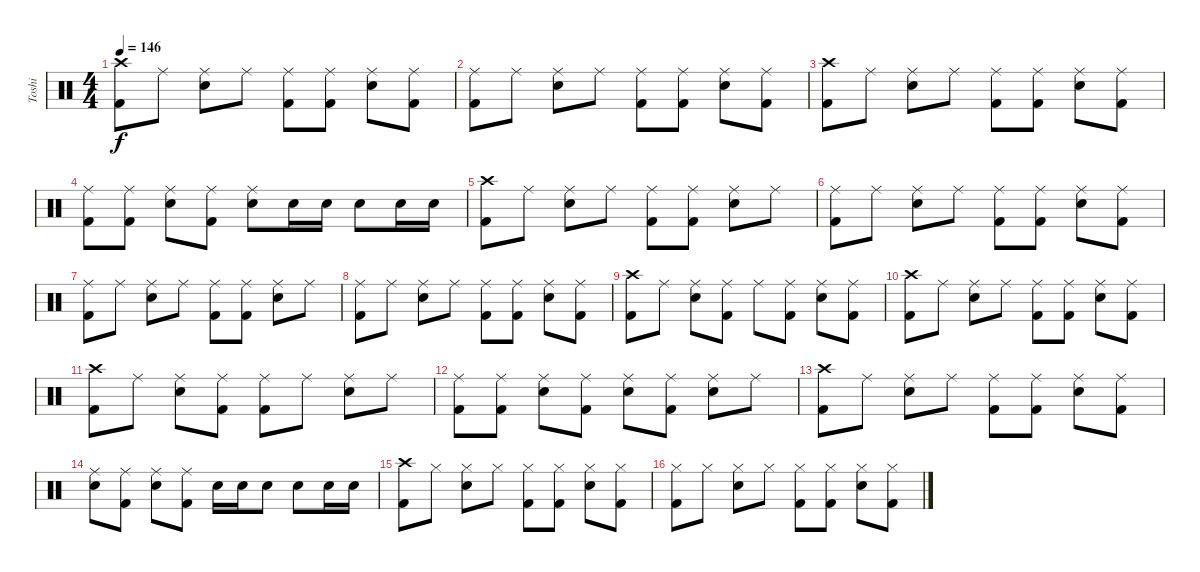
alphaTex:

\track ("Toshi" "Toshi") {instrument percussion}
\staff {score}
\articulation defaults
\ts (4 4)
\tempo 146
\clef neutral
\ks c
("Crash high (hit)" "Kick (hit) 2").8{dy f} "Ride (middle)".8 ("Ride (middle)" "Electric Snare (hit)").8 "Ride (middle)".8 ("Ride (middle)" "Kick (hit) 2").8 ("Ride (middle)" "Kick (hit) 2").8 ("Ride (middle)" "Electric Snare (hit)").8 ("Ride (middle)" "Kick (hit) 2").8 |
("Ride (middle)" "Kick (hit) 2").8 "Ride (middle)".8 ("Ride (middle)" "Electric Snare (hit)").8 "Ride (middle)".8 ("Ride (middle)" "Kick (hit) 2").8 ("Ride (middle)" "Kick (hit) 2").8 ("Ride (middle)" "Electric Snare (hit)").8 ("Ride (middle)" "Kick (hit) 2").8 |
("Crash high (hit)" "Kick (hit) 2").8 "Ride (middle)".8 ("Ride (middle)" "Electric Snare (hit)").8 "Ride (middle)".8 ("Ride (middle)" "Kick (hit) 2").8 ("Ride (middle)" "Kick (hit) 2").8 ("Ride (middle)" "Electric Snare (hit)").8 ("Ride (middle)" "Kick (hit) 2").8 |
("Ride (middle)" "Kick (hit) 2").8 ("Ride (middle)" "Kick (hit) 2").8 ("Ride (middle)" "Electric Snare (hit)").8 ("Ride (middle)" "Kick (hit) 2").8 ("Ride (middle)" "Electric Snare (hit)").8 "Electric Snare (hit)".16 "Electric Snare (hit)".16 "Electric Snare (hit)".8 "Electric Snare (hit)".16 "Electric Snare (hit)".16 |
("Crash high (hit)" "Kick (hit) 2").8 "Ride (middle)".8 ("Ride (middle)" "Electric Snare (hit)").8 "Ride (middle)".8 ("Ride (middle)" "Kick (hit) 2").8 ("Ride (middle)" "Kick (hit) 2").8 ("Ride (middle)" "Electric Snare (hit)").8 "Ride (middle)".8 |
("Ride (middle)" "Kick (hit) 2").8 "Ride (middle)".8 ("Ride (middle)" "Electric Snare (hit)").8 "Ride (middle)".8 ("Ride (middle)" "Kick (hit) 2").8 ("Ride (middle)" "Kick (hit) 2").8 ("Ride (middle)" "Electric Snare (hit)").8 ("Ride (middle)" "Kick (hit) 2").8 |
("Ride (middle)" "Kick (hit) 2").8 "Ride (middle)".8 ("Ride (middle)" "Electric Snare (hit)").8 "Ride (middle)".8 ("Ride (middle)" "Kick (hit) 2").8 ("Ride (middle)" "Kick (hit) 2").8 ("Ride (middle)" "Electric Snare (hit)").8 "Ride (middle)".8 |
("Ride (middle)" "Kick (hit) 2").8 "Ride (middle)".8 ("Ride (middle)" "Electric Snare (hit)").8 "Ride (middle)".8 ("Ride (middle)" "Kick (hit) 2").8 ("Ride (middle)" "Kick (hit) 2").8 ("Ride (middle)" "Electric Snare (hit)").8 ("Ride (middle)" "Kick (hit) 2").8 |
("Crash high (hit)" "Kick (hit) 2").8 "Ride (middle)".8 ("Ride (middle)" "Electric Snare (hit)").8 ("Ride (middle)" "Kick (hit) 2").8 "Ride (middle)".8 ("Ride (middle)" "Kick (hit) 2").8 ("Ride (middle)" "Electric Snare (hit)").8 ("Ride (middle)" "Kick (hit) 2").8 |
("Crash high (hit)" "Kick (hit) 2").8 "Ride (middle)".8 ("Ride (middle)" "Electric Snare (hit)").8 "Ride (middle)".8 ("Ride (middle)" "Kick (hit) 2").8 ("Ride (middle)" "Kick (hit) 2").8 ("Ride (middle)" "Electric Snare (hit)").8 ("Ride (middle)" "Kick (hit) 2").8 |
("Crash high (hit)" "Kick (hit) 2").8 "Ride (middle)".8 ("Ride (middle)" "Electric Snare (hit)").8 ("Ride (middle)" "Kick (hit) 2").8 ("Ride (middle)" "Kick (hit) 2").8 "Ride (middle)".8 ("Ride (middle)" "Electric Snare (hit)").8 "Ride (middle)".8 |
("Ride (middle)" "Kick (hit) 2").8 ("Ride (middle)" "Kick (hit) 2").8 ("Ride (middle)" "Electric Snare (hit)").8 ("Ride (middle)" "Kick (hit) 2").8 ("Ride (middle)" "Electric Snare (hit)").8 ("Ride (middle)" "Kick (hit) 2").8 ("Ride (middle)" "Electric Snare (hit)").8 "Ride (middle)".8 |
("Crash high (hit)" "Kick (hit) 2").8 "Ride (middle)".8 ("Ride (middle)" "Electric Snare (hit)").8 "Ride (middle)".8 ("Ride (middle)" "Kick (hit) 2").8 ("Ride (middle)" "Kick (hit) 2").8 ("Ride (middle)" "Electric Snare (hit)").8 ("Ride (middle)" "Kick (hit) 2").8 |
("Ride (middle)" "Electric Snare (hit)").8 ("Ride (middle)" "Kick (hit) 2").8 ("Ride (middle)" "Electric Snare (hit)").8 ("Ride (middle)" "Kick (hit) 2").8 "Electric Snare (hit)".16 "Electric Snare (hit)".16 "Electric Snare (hit)".8 "Electric Snare (hit)".8 "Electric Snare (hit)".16 "Electric Snare (hit)".16 |
("Crash high (hit)" "Kick (hit) 2").8 "Hi-Hat (closed)".8 ("Hi-Hat (closed)" "Electric Snare (hit)").8 "Hi-Hat (closed)".8 ("Hi-Hat (closed)" "Kick (hit) 2").8 ("Hi-Hat (closed)" "Kick (hit) 2").8 ("Hi-Hat (closed)" "Electric Snare (hit)").8 ("Hi-Hat (closed)" "Kick (hit) 2").8 |
("Hi-Hat (closed)" "Kick (hit) 2").8 "Hi-Hat (closed)".8 ("Hi-Hat (closed)" "Electric Snare (hit)").8 "Hi-Hat (closed)".8 ("Hi-Hat (closed)" "Kick (hit) 2").8 ("Hi-Hat (closed)" "Kick (hit) 2").8 ("Hi-Hat (closed)" "Electric Snare (hit)").8 ("Hi-Hat (closed)" "Kick (hit) 2").8
